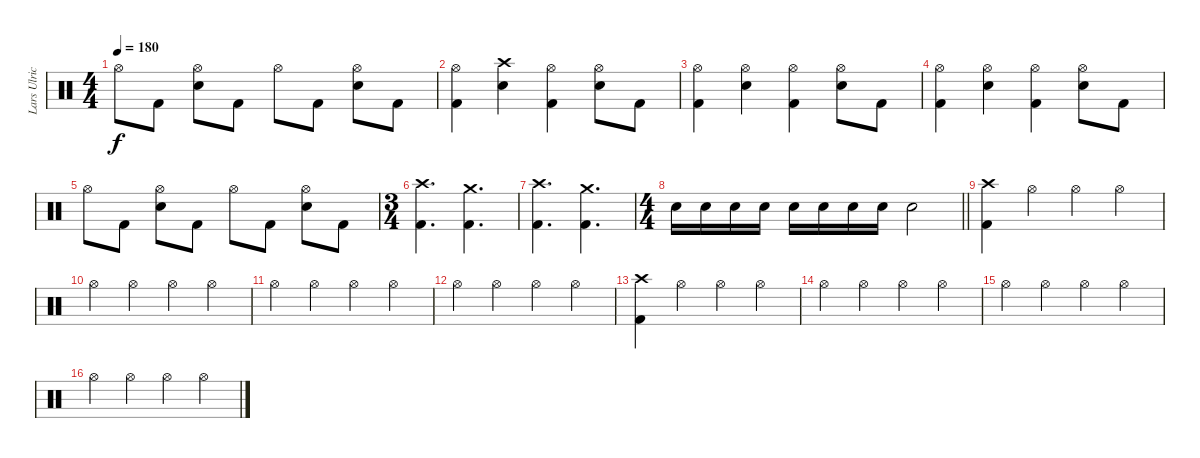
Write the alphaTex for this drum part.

\track ("Lars Ulrich" "Lars Ulric") {instrument percussion}
\staff {score}
\articulation defaults
\ts (4 4)
\tempo 180
\clef neutral
\ks c "Hi-Hat (open)".8{dy f} "Kick (hit) 2".8
("Hi-Hat (open)" "Electric Snare (hit)").8 "Kick (hit) 2".8 "Hi-Hat (open)".8 "Kick (hit) 2".8 ("Hi-Hat (open)" "Electric Snare (hit)").8 "Kick (hit) 2".8 |
("Hi-Hat (open)" "Kick (hit) 2").4 ("Crash high (hit)" "Electric Snare (hit)").4 ("Hi-Hat (open)" "Kick (hit) 2").4 ("Hi-Hat (open)" "Electric Snare (hit)").8 "Kick (hit) 2".8 |
("Hi-Hat (open)" "Kick (hit) 2").4 ("Hi-Hat (open)" "Electric Snare (hit)").4 ("Hi-Hat (open)" "Kick (hit) 2").4 ("Hi-Hat (open)" "Electric Snare (hit)").8 "Kick (hit) 2".8 |
("Hi-Hat (open)" "Kick (hit) 2").4 ("Hi-Hat (open)" "Electric Snare (hit)").4 ("Hi-Hat (open)" "Kick (hit) 2").4 ("Hi-Hat (open)" "Electric Snare (hit)").8 "Kick (hit) 2".8 |
"Hi-Hat (open)".8 "Kick (hit) 2".8 ("Hi-Hat (open)" "Electric Snare (hit)").8 "Kick (hit) 2".8 "Hi-Hat (open)".8 "Kick (hit) 2".8 ("Hi-Hat (open)" "Electric Snare (hit)").8 "Kick (hit) 2".8 |
\ts (3 4)
("Crash high (hit)" "Kick (hit) 2").4{d} ("Crash medium (hit)" "Kick (hit) 2").4{d} |
("Crash high (hit)" "Kick (hit) 2").4{d} ("Crash medium (hit)" "Kick (hit) 2").4{d} |
\ts (4 4)
\barLineRight lightlight "Electric Snare (hit)".16 "Electric Snare (hit)".16 "Electric Snare (hit)".16 "Electric Snare (hit)".16 "Electric Snare (hit)".16 "Electric Snare (hit)".16 "Electric Snare (hit)".16 "Electric Snare (hit)".16 "Electric Snare (hit)".2
|
\section ("" "")
("Crash high (hit)" "Kick (hit) 2").4 "Hi-Hat (open)".4 "Hi-Hat (open)".4 "Hi-Hat (open)".4 |
"Hi-Hat (open)".4 "Hi-Hat (open)".4 "Hi-Hat (open)".4 "Hi-Hat (open)".4 |
"Hi-Hat (open)".4 "Hi-Hat (open)".4 "Hi-Hat (open)".4 "Hi-Hat (open)".4 |
"Hi-Hat (open)".4 "Hi-Hat (open)".4 "Hi-Hat (open)".4 "Hi-Hat (open)".4 |
("Crash high (hit)" "Kick (hit) 2").4 "Hi-Hat (open)".4 "Hi-Hat (open)".4 "Hi-Hat (open)".4 |
"Hi-Hat (open)".4 "Hi-Hat (open)".4 "Hi-Hat (open)".4 "Hi-Hat (open)".4 |
"Hi-Hat (open)".4 "Hi-Hat (open)".4 "Hi-Hat (open)".4 "Hi-Hat (open)".4 |
"Hi-Hat (open)".4 "Hi-Hat (open)".4 "Hi-Hat (open)".4 "Hi-Hat (open)".4
